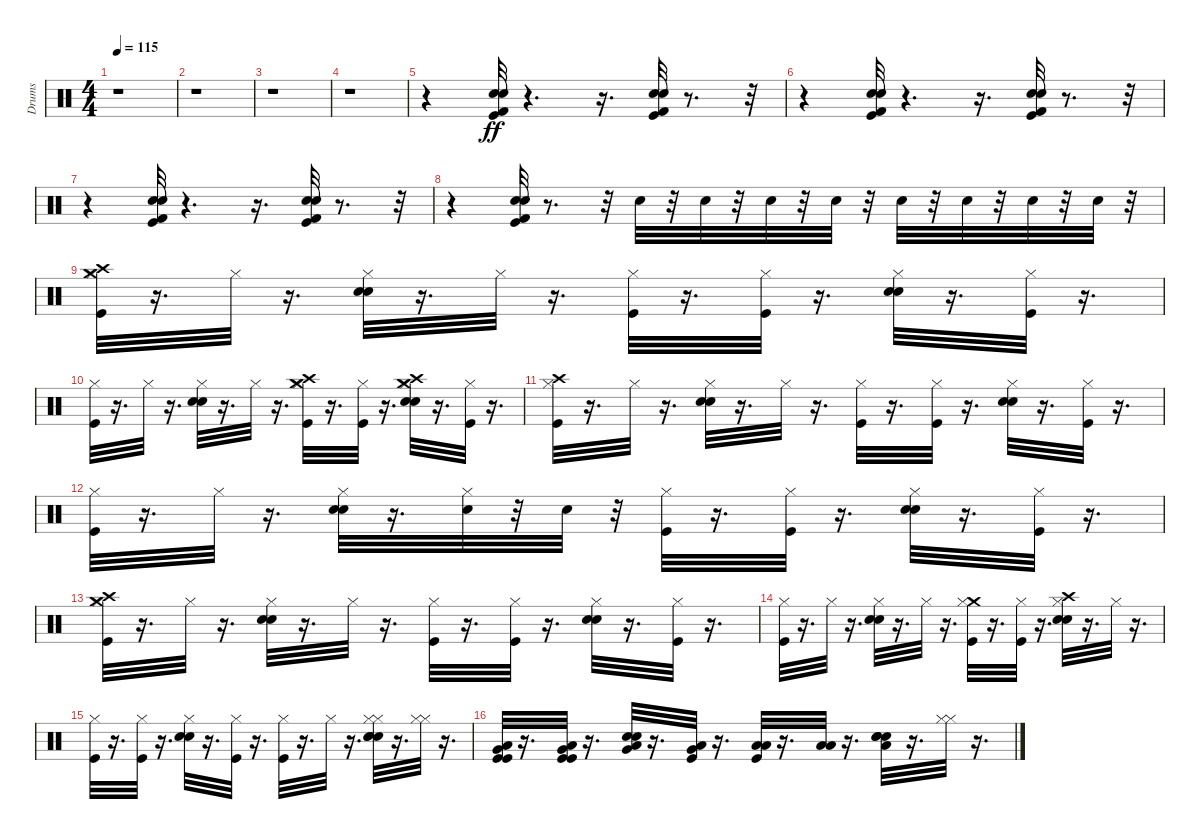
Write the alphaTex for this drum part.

\track ("Drums" "Drums") {instrument percussion}
\staff {score}
\articulation defaults
\ts (4 4)
\tempo 115
\clef neutral
\ks c
r.1{dy ff} |
r.1 |
r.1 |
r.1 |
r.4 ("Electric Snare (hit)" "Snare (hit) 2" "Kick (hit) 2" "Kick (hit)").32 r.4{d} r.16{d} ("Electric Snare (hit)" "Snare (hit) 2" "Kick (hit) 2" "Kick (hit)").32 r.8{d} r.32 |
r.4 ("Electric Snare (hit)" "Snare (hit) 2" "Kick (hit) 2" "Kick (hit)").32 r.4{d} r.16{d} ("Electric Snare (hit)" "Snare (hit) 2" "Kick (hit) 2" "Kick (hit)").32 r.8{d} r.32 |
r.4 ("Electric Snare (hit)" "Snare (hit) 2" "Kick (hit) 2" "Kick (hit)").32 r.4{d} r.16{d} ("Electric Snare (hit)" "Snare (hit) 2" "Kick (hit) 2" "Kick (hit)").32 r.8{d} r.32 |
r.4 ("Electric Snare (hit)" "Snare (hit) 2" "Kick (hit) 2" "Kick (hit)").32 r.8{d} r.32 "Snare (hit) 2".32 r.32 "Snare (hit) 2".32 r.32 "Snare (hit) 2".32 r.32 "Snare (hit) 2".32 r.32 "Snare (hit) 2".32 r.32 "Snare (hit) 2".32 r.32 "Snare (hit) 2".32 r.32 "Snare (hit) 2".32 r.32 |
("Crash medium (hit)" "Crash high (hit)" "Kick (hit)" "Hi-Hat (closed)").32 r.16{d} "Hi-Hat (closed)".32 r.16{d} ("Electric Snare (hit)" "Snare (hit) 2" "Hi-Hat (closed)").32 r.16{d} "Hi-Hat (closed)".32 r.16{d} ("Kick (hit)" "Hi-Hat (closed)").32 r.16{d} ("Kick (hit)" "Hi-Hat (closed)").32 r.16{d} ("Electric Snare (hit)" "Hi-Hat (closed)" "Snare (hit) 2").32 r.16{d} ("Kick (hit)" "Hi-Hat (closed)").32 r.16{d} |
("Kick (hit)" "Hi-Hat (closed)").32 r.16{d} "Hi-Hat (closed)".32 r.16{d} ("Electric Snare (hit)" "Snare (hit) 2" "Hi-Hat (closed)").32 r.16{d} "Hi-Hat (closed)".32 r.16{d} ("Crash medium (hit)" "Crash high (hit)" "Kick (hit)" "Hi-Hat (closed)").32 r.16{d} ("Kick (hit)" "Hi-Hat (closed)").32 r.16{d} ("Crash high (hit)" "Crash medium (hit)" "Electric Snare (hit)" "Hi-Hat (closed)" "Snare (hit) 2").32 r.16{d} ("Kick (hit)" "Hi-Hat (closed)").32 r.16{d} |
("Crash high (hit)" "Kick (hit)" "Hi-Hat (closed)").32 r.16{d} "Hi-Hat (closed)".32 r.16{d} ("Electric Snare (hit)" "Snare (hit) 2" "Hi-Hat (closed)").32 r.16{d} "Hi-Hat (closed)".32 r.16{d} ("Kick (hit)" "Hi-Hat (closed)").32 r.16{d} ("Kick (hit)" "Hi-Hat (closed)").32 r.16{d} ("Electric Snare (hit)" "Hi-Hat (closed)" "Snare (hit) 2").32 r.16{d} ("Kick (hit)" "Hi-Hat (closed)").32 r.16{d} |
("Kick (hit)" "Hi-Hat (closed)").32 r.16{d} "Hi-Hat (closed)".32 r.16{d} ("Electric Snare (hit)" "Snare (hit) 2" "Hi-Hat (closed)").32 r.16{d} ("Electric Snare (hit)" "Hi-Hat (closed)").32 r.32 "Electric Snare (hit)".32 r.32 ("Kick (hit)" "Hi-Hat (closed)").32 r.16{d} ("Kick (hit)" "Hi-Hat (closed)").32 r.16{d} ("Electric Snare (hit)" "Hi-Hat (closed)" "Snare (hit) 2").32 r.16{d} ("Kick (hit)" "Hi-Hat (closed)").32 r.16{d} |
("Crash high (hit)" "Crash medium (hit)" "Kick (hit)" "Hi-Hat (closed)").32 r.16{d} "Hi-Hat (closed)".32 r.16{d} ("Electric Snare (hit)" "Snare (hit) 2" "Hi-Hat (closed)").32 r.16{d} "Hi-Hat (closed)".32 r.16{d} ("Kick (hit)" "Hi-Hat (closed)").32 r.16{d} ("Kick (hit)" "Hi-Hat (closed)").32 r.16{d} ("Electric Snare (hit)" "Hi-Hat (closed)" "Snare (hit) 2").32 r.16{d} ("Kick (hit)" "Hi-Hat (closed)").32 r.16{d} |
("Kick (hit)" "Hi-Hat (closed)").32 r.16{d} "Hi-Hat (closed)".32 r.16{d} ("Electric Snare (hit)" "Snare (hit) 2" "Hi-Hat (closed)").32 r.16{d} "Hi-Hat (closed)".32 r.16{d} ("Crash medium (hit)" "Kick (hit)" "Hi-Hat (closed)").32 r.16{d} ("Kick (hit)" "Hi-Hat (closed)").32 r.16{d} ("Crash high (hit)" "Electric Snare (hit)" "Snare (hit) 2" "Hi-Hat (closed)").32 r.16{d} "Hi-Hat (closed)".32 r.16{d} |
("Kick (hit)" "Hi-Hat (closed)").32 r.16{d} ("Kick (hit)" "Hi-Hat (closed)").32 r.16{d} ("Electric Snare (hit)" "Hi-Hat (closed)" "Snare (hit) 2").32 r.16{d} ("Kick (hit)" "Hi-Hat (closed)").32 r.16{d} ("Kick (hit)" "Hi-Hat (closed)").32 r.16{d} "Hi-Hat (closed)".32 r.16{d} ("Electric Snare (hit)" "Snare (hit) 2" "Hi-Hat (closed)" "Snare (hit) 2" "Hi-Hat (closed)").32 r.16{d} ("Hi-Hat (closed)" "Hi-Hat (closed)").32 r.16{d} |
("Very Low Tom (hit)" "Low Tom (hit)" "Kick (hit)" "Kick (hit)").32 r.16{d} ("Very Low Tom (hit)" "Low Tom (hit)" "Kick (hit)" "Kick (hit)").32 r.16{d} ("Very Low Tom (hit)" "Low Tom (hit)" "Electric Snare (hit)" "Snare (hit) 2").32 r.16{d} ("Very Low Tom (hit)" "Low Tom (hit)" "Kick (hit)").32 r.16{d} ("Low Floor Tom (hit)" "Low Tom (hit)" "Kick (hit)").32 r.16{d} ("Low Floor Tom (hit)" "Low Tom (hit)").32 r.16{d} ("Low Floor Tom (hit)" "Electric Snare (hit)" "Snare (hit) 2" "Snare (hit) 2").32 r.16{d} ("Hi-Hat (closed)" "Hi-Hat (closed)").32 r.16{d}
